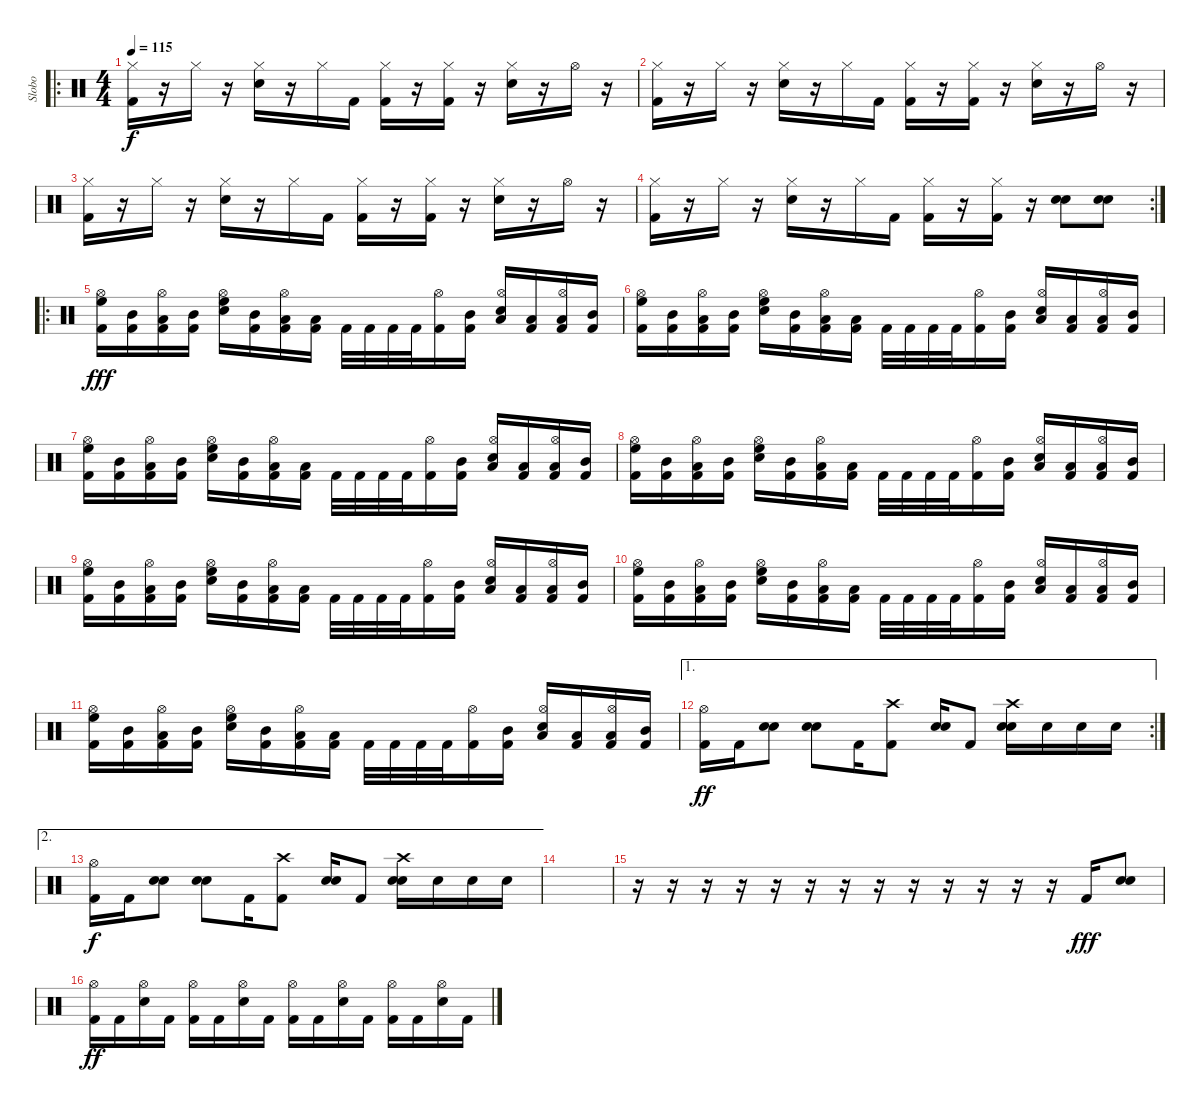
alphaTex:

\track ("Slobo" "Slobo") {instrument percussion}
\staff {score}
\articulation defaults
\ro
\ts (4 4)
\tempo 115
\clef neutral
\ks c
("Hi-Hat (closed)" "Kick (hit) 2").16{dy f} r.16 "Hi-Hat (closed)".16 r.16 ("Hi-Hat (closed)" "Snare (hit) 2").16 r.16 "Hi-Hat (closed)".16 "Kick (hit) 2".16 ("Hi-Hat (closed)" "Kick (hit) 2").16 r.16 ("Hi-Hat (closed)" "Kick (hit) 2").16 r.16 ("Hi-Hat (closed)" "Snare (hit) 2").16 r.16 "Hi-Hat (open)".16 r.16 |
("Hi-Hat (closed)" "Kick (hit) 2").16 r.16 "Hi-Hat (closed)".16 r.16 ("Hi-Hat (closed)" "Snare (hit) 2").16 r.16 "Hi-Hat (closed)".16 "Kick (hit) 2".16 ("Hi-Hat (closed)" "Kick (hit) 2").16 r.16 ("Hi-Hat (closed)" "Kick (hit) 2").16 r.16 ("Hi-Hat (closed)" "Snare (hit) 2").16 r.16 "Hi-Hat (open)".16 r.16 |
("Hi-Hat (closed)" "Kick (hit) 2").16 r.16 "Hi-Hat (closed)".16 r.16 ("Hi-Hat (closed)" "Snare (hit) 2").16 r.16 "Hi-Hat (closed)".16 "Kick (hit) 2".16 ("Hi-Hat (closed)" "Kick (hit) 2").16 r.16 ("Hi-Hat (closed)" "Kick (hit) 2").16 r.16 ("Hi-Hat (closed)" "Snare (hit) 2").16 r.16 "Hi-Hat (open)".16 r.16 |
\rc 2
("Hi-Hat (closed)" "Kick (hit) 2").16 r.16 "Hi-Hat (closed)".16 r.16 ("Hi-Hat (closed)" "Snare (hit) 2").16 r.16 "Hi-Hat (closed)".16 "Kick (hit) 2".16 ("Hi-Hat (closed)" "Kick (hit) 2").16 r.16 ("Hi-Hat (closed)" "Kick (hit) 2").16 r.16 ("Snare (hit) 2" "Snare (hit) 2").8{bd 480} ("Snare (hit) 2" "Snare (hit) 2").8{bd 480} |
\ro
("Hi-Hat (open)" "High Floor Tom (hit)" "Kick (hit) 2").16{dy fff} ("Mid Tom (hit)" "Kick (hit) 2").16 ("Hi-Hat (open)" "Low Tom (hit)" "Kick (hit) 2").16 ("Mid Tom (hit)" "Kick (hit) 2").16 ("Hi-Hat (open)" "High Floor Tom (hit)" "Snare (hit) 2").16 ("Mid Tom (hit)" "Kick (hit) 2").16 ("Hi-Hat (open)" "Low Tom (hit)" "Kick (hit) 2").16 ("Low Floor Tom (hit)" "Kick (hit) 2").16 "Kick (hit) 2".32 "Kick (hit) 2".32 "Kick (hit) 2".32 "Kick (hit) 2".32 ("Hi-Hat (open)" "Kick (hit) 2").16 ("Mid Tom (hit)" "Kick (hit) 2").16 ("Hi-Hat (open)" "Low Tom (hit)" "Snare (hit) 2").16 ("Low Floor Tom (hit)" "Kick (hit) 2").16 ("Hi-Hat (open)" "Low Tom (hit)" "Kick (hit) 2").16 ("Mid Tom (hit)" "Kick (hit) 2").16 |
("Hi-Hat (open)" "High Floor Tom (hit)" "Kick (hit) 2").16 ("Mid Tom (hit)" "Kick (hit) 2").16 ("Hi-Hat (open)" "Low Tom (hit)" "Kick (hit) 2").16 ("Mid Tom (hit)" "Kick (hit) 2").16 ("Hi-Hat (open)" "High Floor Tom (hit)" "Snare (hit) 2").16 ("Mid Tom (hit)" "Kick (hit) 2").16 ("Hi-Hat (open)" "Low Tom (hit)" "Kick (hit) 2").16 ("Low Floor Tom (hit)" "Kick (hit) 2").16 "Kick (hit) 2".32 "Kick (hit) 2".32 "Kick (hit) 2".32 "Kick (hit) 2".32 ("Hi-Hat (open)" "Kick (hit) 2").16 ("Mid Tom (hit)" "Kick (hit) 2").16 ("Hi-Hat (open)" "Low Tom (hit)" "Snare (hit) 2").16 ("Low Floor Tom (hit)" "Kick (hit) 2").16 ("Hi-Hat (open)" "Low Tom (hit)" "Kick (hit) 2").16 ("Mid Tom (hit)" "Kick (hit) 2").16 |
("Hi-Hat (open)" "High Floor Tom (hit)" "Kick (hit) 2").16 ("Mid Tom (hit)" "Kick (hit) 2").16 ("Hi-Hat (open)" "Low Tom (hit)" "Kick (hit) 2").16 ("Mid Tom (hit)" "Kick (hit) 2").16 ("Hi-Hat (open)" "High Floor Tom (hit)" "Snare (hit) 2").16 ("Mid Tom (hit)" "Kick (hit) 2").16 ("Hi-Hat (open)" "Low Tom (hit)" "Kick (hit) 2").16 ("Low Floor Tom (hit)" "Kick (hit) 2").16 "Kick (hit) 2".32 "Kick (hit) 2".32 "Kick (hit) 2".32 "Kick (hit) 2".32 ("Hi-Hat (open)" "Kick (hit) 2").16 ("Mid Tom (hit)" "Kick (hit) 2").16 ("Hi-Hat (open)" "Low Tom (hit)" "Snare (hit) 2").16 ("Low Floor Tom (hit)" "Kick (hit) 2").16 ("Hi-Hat (open)" "Low Tom (hit)" "Kick (hit) 2").16 ("Mid Tom (hit)" "Kick (hit) 2").16 |
("Hi-Hat (open)" "High Floor Tom (hit)" "Kick (hit) 2").16 ("Mid Tom (hit)" "Kick (hit) 2").16 ("Hi-Hat (open)" "Low Tom (hit)" "Kick (hit) 2").16 ("Mid Tom (hit)" "Kick (hit) 2").16 ("Hi-Hat (open)" "High Floor Tom (hit)" "Snare (hit) 2").16 ("Mid Tom (hit)" "Kick (hit) 2").16 ("Hi-Hat (open)" "Low Tom (hit)" "Kick (hit) 2").16 ("Low Floor Tom (hit)" "Kick (hit) 2").16 "Kick (hit) 2".32 "Kick (hit) 2".32 "Kick (hit) 2".32 "Kick (hit) 2".32 ("Hi-Hat (open)" "Kick (hit) 2").16 ("Mid Tom (hit)" "Kick (hit) 2").16 ("Hi-Hat (open)" "Low Tom (hit)" "Snare (hit) 2").16 ("Low Floor Tom (hit)" "Kick (hit) 2").16 ("Hi-Hat (open)" "Low Tom (hit)" "Kick (hit) 2").16 ("Mid Tom (hit)" "Kick (hit) 2").16 |
("Hi-Hat (open)" "High Floor Tom (hit)" "Kick (hit) 2").16 ("Mid Tom (hit)" "Kick (hit) 2").16 ("Hi-Hat (open)" "Low Tom (hit)" "Kick (hit) 2").16 ("Mid Tom (hit)" "Kick (hit) 2").16 ("Hi-Hat (open)" "High Floor Tom (hit)" "Snare (hit) 2").16 ("Mid Tom (hit)" "Kick (hit) 2").16 ("Hi-Hat (open)" "Low Tom (hit)" "Kick (hit) 2").16 ("Low Floor Tom (hit)" "Kick (hit) 2").16 "Kick (hit) 2".32 "Kick (hit) 2".32 "Kick (hit) 2".32 "Kick (hit) 2".32 ("Hi-Hat (open)" "Kick (hit) 2").16 ("Mid Tom (hit)" "Kick (hit) 2").16 ("Hi-Hat (open)" "Low Tom (hit)" "Snare (hit) 2").16 ("Low Floor Tom (hit)" "Kick (hit) 2").16 ("Hi-Hat (open)" "Low Tom (hit)" "Kick (hit) 2").16 ("Mid Tom (hit)" "Kick (hit) 2").16 |
("Hi-Hat (open)" "High Floor Tom (hit)" "Kick (hit) 2").16 ("Mid Tom (hit)" "Kick (hit) 2").16 ("Hi-Hat (open)" "Low Tom (hit)" "Kick (hit) 2").16 ("Mid Tom (hit)" "Kick (hit) 2").16 ("Hi-Hat (open)" "High Floor Tom (hit)" "Snare (hit) 2").16 ("Mid Tom (hit)" "Kick (hit) 2").16 ("Hi-Hat (open)" "Low Tom (hit)" "Kick (hit) 2").16 ("Low Floor Tom (hit)" "Kick (hit) 2").16 "Kick (hit) 2".32 "Kick (hit) 2".32 "Kick (hit) 2".32 "Kick (hit) 2".32 ("Hi-Hat (open)" "Kick (hit) 2").16 ("Mid Tom (hit)" "Kick (hit) 2").16 ("Hi-Hat (open)" "Low Tom (hit)" "Snare (hit) 2").16 ("Low Floor Tom (hit)" "Kick (hit) 2").16 ("Hi-Hat (open)" "Low Tom (hit)" "Kick (hit) 2").16 ("Mid Tom (hit)" "Kick (hit) 2").16 |
("Hi-Hat (open)" "High Floor Tom (hit)" "Kick (hit) 2").16 ("Mid Tom (hit)" "Kick (hit) 2").16 ("Hi-Hat (open)" "Low Tom (hit)" "Kick (hit) 2").16 ("Mid Tom (hit)" "Kick (hit) 2").16 ("Hi-Hat (open)" "High Floor Tom (hit)" "Snare (hit) 2").16 ("Mid Tom (hit)" "Kick (hit) 2").16 ("Hi-Hat (open)" "Low Tom (hit)" "Kick (hit) 2").16 ("Low Floor Tom (hit)" "Kick (hit) 2").16 "Kick (hit) 2".32 "Kick (hit) 2".32 "Kick (hit) 2".32 "Kick (hit) 2".32 ("Hi-Hat (open)" "Kick (hit) 2").16 ("Mid Tom (hit)" "Kick (hit) 2").16 ("Hi-Hat (open)" "Low Tom (hit)" "Snare (hit) 2").16 ("Low Floor Tom (hit)" "Kick (hit) 2").16 ("Hi-Hat (open)" "Low Tom (hit)" "Kick (hit) 2").16 ("Mid Tom (hit)" "Kick (hit) 2").16 |
\ae 1
\rc 2
("Hi-Hat (open)" "Kick (hit) 2").16{dy ff} "Kick (hit) 2".16 ("Snare (hit) 2" "Snare (hit) 2").8{bd 480} ("Snare (hit) 2" "Snare (hit) 2").8{bd 480} "Kick (hit) 2".16 ("Crash high (hit)" "Kick (hit) 2").8 ("Snare (hit) 2" "Snare (hit) 2").16{bd 480} "Kick (hit) 2".8 ("Crash high (hit)" "Snare (hit) 2" "Snare (hit) 2").16{bd 480} "Snare (hit) 2".16 "Snare (hit) 2".16 "Snare (hit) 2".16 |
\ae 2
("Hi-Hat (open)" "Kick (hit) 2").16{dy f} "Kick (hit) 2".16 ("Snare (hit) 2" "Snare (hit) 2").8{bd 480} ("Snare (hit) 2" "Snare (hit) 2").8{bd 480} "Kick (hit) 2".16 ("Crash high (hit)" "Kick (hit) 2").8 ("Snare (hit) 2" "Snare (hit) 2").16{bd 480} "Kick (hit) 2".8 ("Crash high (hit)" "Snare (hit) 2" "Snare (hit) 2").16{bd 480} "Snare (hit) 2".16 "Snare (hit) 2".16 "Snare (hit) 2".16 |
|
r.16 r.16 r.16 r.16 r.16 r.16 r.16 r.16 r.16 r.16 r.16 r.16 r.16 "Kick (hit) 2".16{dy fff} ("Snare (hit) 2" "Snare (hit) 2").8{bd 480} |
("Kick (hit) 2" "Hi-Hat (open)").16{dy ff} "Kick (hit) 2".16 ("Snare (hit) 2" "Hi-Hat (open)").16 "Kick (hit) 2".16 ("Kick (hit) 2" "Hi-Hat (open)").16 "Kick (hit) 2".16 ("Snare (hit) 2" "Hi-Hat (open)").16 "Kick (hit) 2".16 ("Kick (hit) 2" "Hi-Hat (open)").16 "Kick (hit) 2".16 ("Snare (hit) 2" "Hi-Hat (open)").16 "Kick (hit) 2".16 ("Kick (hit) 2" "Hi-Hat (open)").16 "Kick (hit) 2".16 ("Snare (hit) 2" "Hi-Hat (open)").16 "Kick (hit) 2".16
